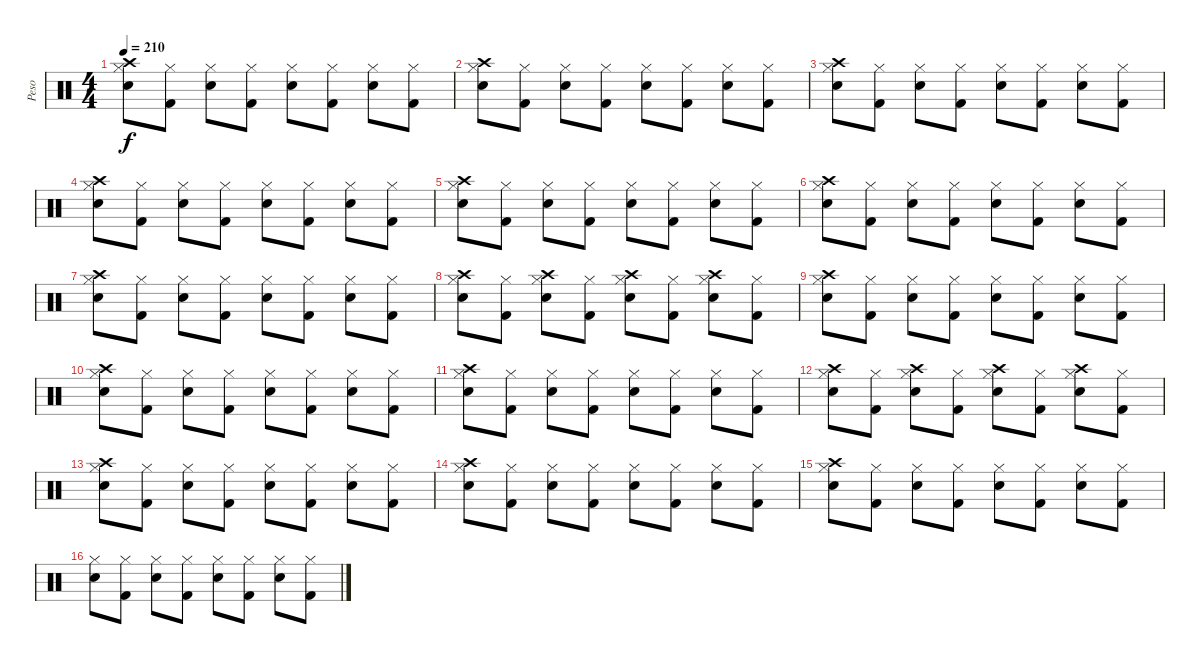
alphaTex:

\track ("Peso" "Peso") {instrument percussion}
\staff {score}
\articulation defaults
\ts (4 4)
\tempo 210
\clef neutral
\ks c
("Crash high (hit)" "Hi-Hat (closed)" "Snare (hit) 2").8{dy f} ("Hi-Hat (closed)" "Kick (hit) 2").8 ("Hi-Hat (closed)" "Snare (hit) 2").8 ("Hi-Hat (closed)" "Kick (hit) 2").8 ("Hi-Hat (closed)" "Snare (hit) 2").8 ("Hi-Hat (closed)" "Kick (hit) 2").8 ("Hi-Hat (closed)" "Snare (hit) 2").8 ("Hi-Hat (closed)" "Kick (hit) 2").8 |
("Crash high (hit)" "Hi-Hat (closed)" "Snare (hit) 2").8 ("Hi-Hat (closed)" "Kick (hit) 2").8 ("Hi-Hat (closed)" "Snare (hit) 2").8 ("Hi-Hat (closed)" "Kick (hit) 2").8 ("Hi-Hat (closed)" "Snare (hit) 2").8 ("Hi-Hat (closed)" "Kick (hit) 2").8 ("Hi-Hat (closed)" "Snare (hit) 2").8 ("Hi-Hat (closed)" "Kick (hit) 2").8 |
("Crash high (hit)" "Hi-Hat (closed)" "Snare (hit) 2").8 ("Hi-Hat (closed)" "Kick (hit) 2").8 ("Hi-Hat (closed)" "Snare (hit) 2").8 ("Hi-Hat (closed)" "Kick (hit) 2").8 ("Hi-Hat (closed)" "Snare (hit) 2").8 ("Hi-Hat (closed)" "Kick (hit) 2").8 ("Hi-Hat (closed)" "Snare (hit) 2").8 ("Hi-Hat (closed)" "Kick (hit) 2").8 |
("Crash high (hit)" "Hi-Hat (closed)" "Snare (hit) 2").8 ("Hi-Hat (closed)" "Kick (hit) 2").8 ("Hi-Hat (closed)" "Snare (hit) 2").8 ("Hi-Hat (closed)" "Kick (hit) 2").8 ("Hi-Hat (closed)" "Snare (hit) 2").8 ("Hi-Hat (closed)" "Kick (hit) 2").8 ("Hi-Hat (closed)" "Snare (hit) 2").8 ("Hi-Hat (closed)" "Kick (hit) 2").8 |
("Crash high (hit)" "Hi-Hat (closed)" "Snare (hit) 2").8 ("Hi-Hat (closed)" "Kick (hit) 2").8 ("Hi-Hat (closed)" "Snare (hit) 2").8 ("Hi-Hat (closed)" "Kick (hit) 2").8 ("Hi-Hat (closed)" "Snare (hit) 2").8 ("Hi-Hat (closed)" "Kick (hit) 2").8 ("Hi-Hat (closed)" "Snare (hit) 2").8 ("Hi-Hat (closed)" "Kick (hit) 2").8 |
("Crash high (hit)" "Hi-Hat (closed)" "Snare (hit) 2").8 ("Hi-Hat (closed)" "Kick (hit) 2").8 ("Hi-Hat (closed)" "Snare (hit) 2").8 ("Hi-Hat (closed)" "Kick (hit) 2").8 ("Hi-Hat (closed)" "Snare (hit) 2").8 ("Hi-Hat (closed)" "Kick (hit) 2").8 ("Hi-Hat (closed)" "Snare (hit) 2").8 ("Hi-Hat (closed)" "Kick (hit) 2").8 |
("Crash high (hit)" "Hi-Hat (closed)" "Snare (hit) 2").8 ("Hi-Hat (closed)" "Kick (hit) 2").8 ("Hi-Hat (closed)" "Snare (hit) 2").8 ("Hi-Hat (closed)" "Kick (hit) 2").8 ("Hi-Hat (closed)" "Snare (hit) 2").8 ("Hi-Hat (closed)" "Kick (hit) 2").8 ("Hi-Hat (closed)" "Snare (hit) 2").8 ("Hi-Hat (closed)" "Kick (hit) 2").8 |
("Crash high (hit)" "Hi-Hat (closed)" "Snare (hit) 2").8 ("Hi-Hat (closed)" "Kick (hit) 2").8 ("Crash high (hit)" "Hi-Hat (closed)" "Snare (hit) 2").8 ("Hi-Hat (closed)" "Kick (hit) 2").8 ("Crash high (hit)" "Hi-Hat (closed)" "Snare (hit) 2").8 ("Hi-Hat (closed)" "Kick (hit) 2").8 ("Crash high (hit)" "Hi-Hat (closed)" "Snare (hit) 2").8 ("Hi-Hat (closed)" "Kick (hit) 2").8 |
("Crash high (hit)" "Hi-Hat (closed)" "Snare (hit) 2").8 ("Hi-Hat (closed)" "Kick (hit) 2").8 ("Hi-Hat (closed)" "Snare (hit) 2").8 ("Hi-Hat (closed)" "Kick (hit) 2").8 ("Hi-Hat (closed)" "Snare (hit) 2").8 ("Hi-Hat (closed)" "Kick (hit) 2").8 ("Hi-Hat (closed)" "Snare (hit) 2").8 ("Hi-Hat (closed)" "Kick (hit) 2").8 |
("Crash high (hit)" "Hi-Hat (closed)" "Snare (hit) 2").8 ("Hi-Hat (closed)" "Kick (hit) 2").8 ("Hi-Hat (closed)" "Snare (hit) 2").8 ("Hi-Hat (closed)" "Kick (hit) 2").8 ("Hi-Hat (closed)" "Snare (hit) 2").8 ("Hi-Hat (closed)" "Kick (hit) 2").8 ("Hi-Hat (closed)" "Snare (hit) 2").8 ("Hi-Hat (closed)" "Kick (hit) 2").8 |
("Crash high (hit)" "Hi-Hat (closed)" "Snare (hit) 2").8 ("Hi-Hat (closed)" "Kick (hit) 2").8 ("Hi-Hat (closed)" "Snare (hit) 2").8 ("Hi-Hat (closed)" "Kick (hit) 2").8 ("Hi-Hat (closed)" "Snare (hit) 2").8 ("Hi-Hat (closed)" "Kick (hit) 2").8 ("Hi-Hat (closed)" "Snare (hit) 2").8 ("Hi-Hat (closed)" "Kick (hit) 2").8 |
("Crash high (hit)" "Hi-Hat (closed)" "Snare (hit) 2").8 ("Hi-Hat (closed)" "Kick (hit) 2").8 ("Crash high (hit)" "Hi-Hat (closed)" "Snare (hit) 2").8 ("Hi-Hat (closed)" "Kick (hit) 2").8 ("Crash high (hit)" "Hi-Hat (closed)" "Snare (hit) 2").8 ("Hi-Hat (closed)" "Kick (hit) 2").8 ("Crash high (hit)" "Hi-Hat (closed)" "Snare (hit) 2").8 ("Hi-Hat (closed)" "Kick (hit) 2").8 |
("Crash high (hit)" "Hi-Hat (closed)" "Snare (hit) 2").8 ("Hi-Hat (closed)" "Kick (hit) 2").8 ("Hi-Hat (closed)" "Snare (hit) 2").8 ("Hi-Hat (closed)" "Kick (hit) 2").8 ("Hi-Hat (closed)" "Snare (hit) 2").8 ("Hi-Hat (closed)" "Kick (hit) 2").8 ("Hi-Hat (closed)" "Snare (hit) 2").8 ("Hi-Hat (closed)" "Kick (hit) 2").8 |
("Crash high (hit)" "Hi-Hat (closed)" "Snare (hit) 2").8 ("Hi-Hat (closed)" "Kick (hit) 2").8 ("Hi-Hat (closed)" "Snare (hit) 2").8 ("Hi-Hat (closed)" "Kick (hit) 2").8 ("Hi-Hat (closed)" "Snare (hit) 2").8 ("Hi-Hat (closed)" "Kick (hit) 2").8 ("Hi-Hat (closed)" "Snare (hit) 2").8 ("Hi-Hat (closed)" "Kick (hit) 2").8 |
("Crash high (hit)" "Hi-Hat (closed)" "Snare (hit) 2").8 ("Hi-Hat (closed)" "Kick (hit) 2").8 ("Hi-Hat (closed)" "Snare (hit) 2").8 ("Hi-Hat (closed)" "Kick (hit) 2").8 ("Hi-Hat (closed)" "Snare (hit) 2").8 ("Hi-Hat (closed)" "Kick (hit) 2").8 ("Hi-Hat (closed)" "Snare (hit) 2").8 ("Hi-Hat (closed)" "Kick (hit) 2").8 |
("Hi-Hat (closed)" "Snare (hit) 2").8 ("Hi-Hat (closed)" "Kick (hit) 2").8 ("Hi-Hat (closed)" "Snare (hit) 2").8 ("Hi-Hat (closed)" "Kick (hit) 2").8 ("Hi-Hat (closed)" "Snare (hit) 2").8 ("Hi-Hat (closed)" "Kick (hit) 2").8 ("Hi-Hat (closed)" "Snare (hit) 2").8 ("Hi-Hat (closed)" "Kick (hit) 2").8
